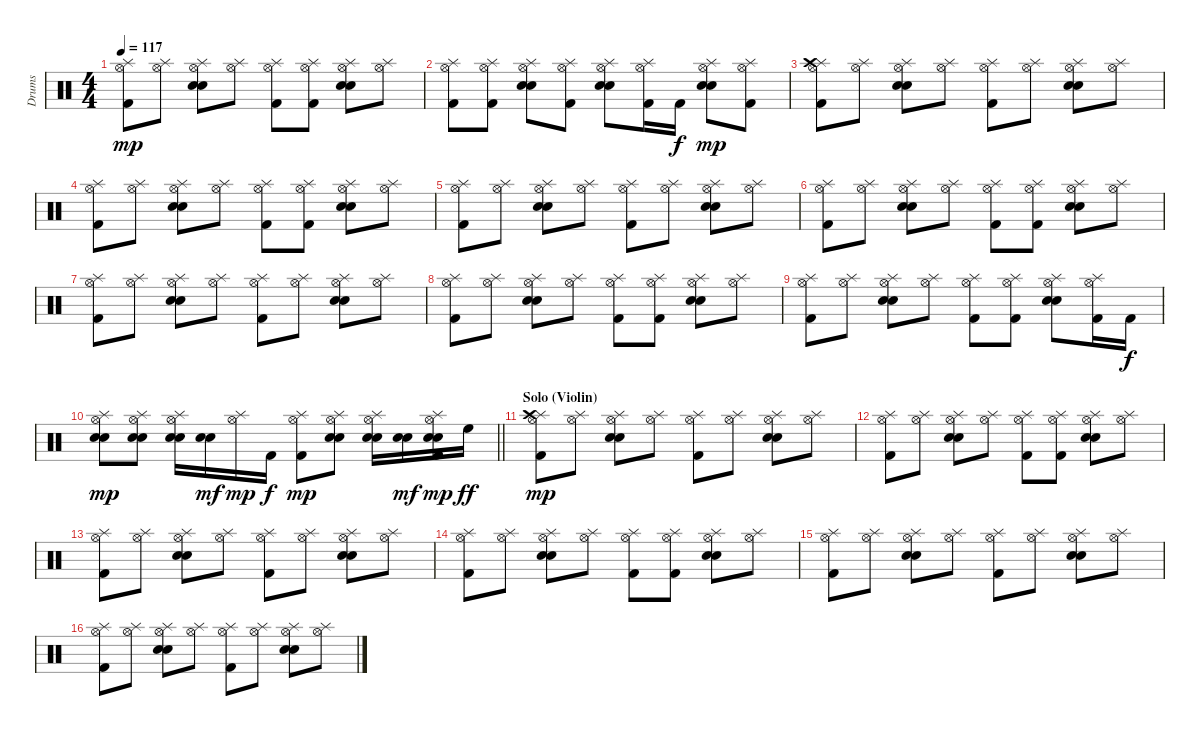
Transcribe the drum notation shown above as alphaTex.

\track ("Drums" "Drums") {instrument percussion}
\staff {score}
\articulation defaults
\ts (4 4)
\tempo 117
\clef neutral
\ks c
("Splash (hit)" "Hi-Hat (open)" "Kick (hit) 2").8{dy mp} ("Splash (hit)" "Hi-Hat (open)").8 ("Splash (hit)" "Hi-Hat (open)" "Snare (hit) 2" "Snare (hit) 2").8 ("Splash (hit)" "Hi-Hat (open)").8 ("Splash (hit)" "Hi-Hat (open)" "Kick (hit) 2").8 ("Splash (hit)" "Hi-Hat (open)" "Kick (hit) 2").8 ("Splash (hit)" "Hi-Hat (open)" "Snare (hit) 2" "Snare (hit) 2").8 ("Splash (hit)" "Hi-Hat (open)").8 |
("Splash (hit)" "Hi-Hat (open)" "Kick (hit) 2").8 ("Splash (hit)" "Hi-Hat (open)" "Kick (hit) 2").8 ("Splash (hit)" "Hi-Hat (open)" "Snare (hit) 2" "Snare (hit) 2").8 ("Splash (hit)" "Hi-Hat (open)" "Kick (hit) 2").8 ("Splash (hit)" "Hi-Hat (open)" "Snare (hit) 2" "Snare (hit) 2").8 ("Splash (hit)" "Hi-Hat (open)" "Kick (hit) 2").16 "Kick (hit) 2".16{dy f} ("Splash (hit)" "Hi-Hat (open)" "Snare (hit) 2" "Snare (hit) 2").8{dy mp} ("Splash (hit)" "Hi-Hat (open)" "Kick (hit) 2").8 |
("Splash (hit)" "Crash high (hit)" "Hi-Hat (open)" "Kick (hit) 2").8 ("Splash (hit)" "Hi-Hat (open)").8 ("Splash (hit)" "Hi-Hat (open)" "Snare (hit) 2" "Snare (hit) 2").8 ("Splash (hit)" "Hi-Hat (open)").8 ("Splash (hit)" "Hi-Hat (open)" "Kick (hit) 2").8 ("Splash (hit)" "Hi-Hat (open)").8 ("Splash (hit)" "Hi-Hat (open)" "Snare (hit) 2" "Snare (hit) 2").8 ("Splash (hit)" "Hi-Hat (open)").8 |
("Splash (hit)" "Hi-Hat (open)" "Kick (hit) 2").8 ("Splash (hit)" "Hi-Hat (open)").8 ("Splash (hit)" "Hi-Hat (open)" "Snare (hit) 2" "Snare (hit) 2").8 ("Splash (hit)" "Hi-Hat (open)").8 ("Splash (hit)" "Hi-Hat (open)" "Kick (hit) 2").8 ("Splash (hit)" "Hi-Hat (open)" "Kick (hit) 2").8 ("Splash (hit)" "Hi-Hat (open)" "Snare (hit) 2" "Snare (hit) 2").8 ("Splash (hit)" "Hi-Hat (open)").8 |
("Splash (hit)" "Hi-Hat (open)" "Kick (hit) 2").8 ("Splash (hit)" "Hi-Hat (open)").8 ("Splash (hit)" "Hi-Hat (open)" "Snare (hit) 2" "Snare (hit) 2").8 ("Splash (hit)" "Hi-Hat (open)").8 ("Splash (hit)" "Hi-Hat (open)" "Kick (hit) 2").8 ("Splash (hit)" "Hi-Hat (open)").8 ("Splash (hit)" "Hi-Hat (open)" "Snare (hit) 2" "Snare (hit) 2").8 ("Splash (hit)" "Hi-Hat (open)").8 |
("Splash (hit)" "Hi-Hat (open)" "Kick (hit) 2").8 ("Splash (hit)" "Hi-Hat (open)").8 ("Splash (hit)" "Hi-Hat (open)" "Snare (hit) 2" "Snare (hit) 2").8 ("Splash (hit)" "Hi-Hat (open)").8 ("Splash (hit)" "Hi-Hat (open)" "Kick (hit) 2").8 ("Splash (hit)" "Hi-Hat (open)" "Kick (hit) 2").8 ("Splash (hit)" "Hi-Hat (open)" "Snare (hit) 2" "Snare (hit) 2").8 ("Splash (hit)" "Hi-Hat (open)").8 |
("Splash (hit)" "Hi-Hat (open)" "Kick (hit) 2").8 ("Splash (hit)" "Hi-Hat (open)").8 ("Splash (hit)" "Hi-Hat (open)" "Snare (hit) 2" "Snare (hit) 2").8 ("Splash (hit)" "Hi-Hat (open)").8 ("Splash (hit)" "Hi-Hat (open)" "Kick (hit) 2").8 ("Splash (hit)" "Hi-Hat (open)").8 ("Splash (hit)" "Hi-Hat (open)" "Snare (hit) 2" "Snare (hit) 2").8 ("Splash (hit)" "Hi-Hat (open)").8 |
("Splash (hit)" "Hi-Hat (open)" "Kick (hit) 2").8 ("Splash (hit)" "Hi-Hat (open)").8 ("Splash (hit)" "Hi-Hat (open)" "Snare (hit) 2" "Snare (hit) 2").8 ("Splash (hit)" "Hi-Hat (open)").8 ("Splash (hit)" "Hi-Hat (open)" "Kick (hit) 2").8 ("Splash (hit)" "Hi-Hat (open)" "Kick (hit) 2").8 ("Splash (hit)" "Hi-Hat (open)" "Snare (hit) 2" "Snare (hit) 2").8 ("Splash (hit)" "Hi-Hat (open)").8 |
("Splash (hit)" "Hi-Hat (open)" "Kick (hit) 2").8 ("Splash (hit)" "Hi-Hat (open)").8 ("Splash (hit)" "Hi-Hat (open)" "Snare (hit) 2" "Snare (hit) 2").8 ("Splash (hit)" "Hi-Hat (open)").8 ("Splash (hit)" "Hi-Hat (open)" "Kick (hit) 2").8 ("Splash (hit)" "Hi-Hat (open)" "Kick (hit) 2").8 ("Splash (hit)" "Hi-Hat (open)" "Snare (hit) 2" "Snare (hit) 2").8 ("Splash (hit)" "Hi-Hat (open)" "Kick (hit) 2").16 "Kick (hit) 2".16{dy f} |
\barLineRight lightlight
("Splash (hit)" "Hi-Hat (open)" "Snare (hit) 2" "Snare (hit) 2").8{dy mp} ("Splash (hit)" "Hi-Hat (open)" "Snare (hit) 2" "Snare (hit) 2").8 ("Splash (hit)" "Hi-Hat (open)" "Snare (hit) 2" "Snare (hit) 2").16 ("Snare (hit) 2" "Snare (hit) 2").16{dy mf} ("Splash (hit)" "Hi-Hat (open)").16{dy mp} "Kick (hit) 2".16{dy f} ("Splash (hit)" "Hi-Hat (open)" "Kick (hit) 2").8{dy mp} ("Splash (hit)" "Hi-Hat (open)" "Snare (hit) 2" "Snare (hit) 2").8 ("Splash (hit)" "Hi-Hat (open)" "Snare (hit) 2" "Snare (hit) 2").16 ("Snare (hit) 2" "Snare (hit) 2").16{dy mf} ("Splash (hit)" "Hi-Hat (open)" "Snare (hit) 2" "Snare (hit) 2" "Kick (hit) 2").16{dy mp} "High Floor Tom (hit)".16{dy ff} |
\section ("" "Solo (Violin)")
("Splash (hit)" "Crash high (hit)" "Hi-Hat (open)" "Kick (hit) 2").8{dy mp} ("Splash (hit)" "Hi-Hat (open)").8 ("Splash (hit)" "Hi-Hat (open)" "Snare (hit) 2" "Snare (hit) 2").8 ("Splash (hit)" "Hi-Hat (open)").8 ("Splash (hit)" "Hi-Hat (open)" "Kick (hit) 2").8 ("Splash (hit)" "Hi-Hat (open)").8 ("Splash (hit)" "Hi-Hat (open)" "Snare (hit) 2" "Snare (hit) 2").8 ("Splash (hit)" "Hi-Hat (open)").8 |
("Splash (hit)" "Hi-Hat (open)" "Kick (hit) 2").8 ("Splash (hit)" "Hi-Hat (open)").8 ("Splash (hit)" "Hi-Hat (open)" "Snare (hit) 2" "Snare (hit) 2").8 ("Splash (hit)" "Hi-Hat (open)").8 ("Splash (hit)" "Hi-Hat (open)" "Kick (hit) 2").8 ("Splash (hit)" "Hi-Hat (open)" "Kick (hit) 2").8 ("Splash (hit)" "Hi-Hat (open)" "Snare (hit) 2" "Snare (hit) 2").8 ("Splash (hit)" "Hi-Hat (open)").8 |
("Splash (hit)" "Hi-Hat (open)" "Kick (hit) 2").8 ("Splash (hit)" "Hi-Hat (open)").8 ("Splash (hit)" "Hi-Hat (open)" "Snare (hit) 2" "Snare (hit) 2").8 ("Splash (hit)" "Hi-Hat (open)").8 ("Splash (hit)" "Hi-Hat (open)" "Kick (hit) 2").8 ("Splash (hit)" "Hi-Hat (open)").8 ("Splash (hit)" "Hi-Hat (open)" "Snare (hit) 2" "Snare (hit) 2").8 ("Splash (hit)" "Hi-Hat (open)").8 |
("Splash (hit)" "Hi-Hat (open)" "Kick (hit) 2").8 ("Splash (hit)" "Hi-Hat (open)").8 ("Splash (hit)" "Hi-Hat (open)" "Snare (hit) 2" "Snare (hit) 2").8 ("Splash (hit)" "Hi-Hat (open)").8 ("Splash (hit)" "Hi-Hat (open)" "Kick (hit) 2").8 ("Splash (hit)" "Hi-Hat (open)" "Kick (hit) 2").8 ("Splash (hit)" "Hi-Hat (open)" "Snare (hit) 2" "Snare (hit) 2").8 ("Splash (hit)" "Hi-Hat (open)").8 |
("Splash (hit)" "Hi-Hat (open)" "Kick (hit) 2").8 ("Splash (hit)" "Hi-Hat (open)").8 ("Splash (hit)" "Hi-Hat (open)" "Snare (hit) 2" "Snare (hit) 2").8 ("Splash (hit)" "Hi-Hat (open)").8 ("Splash (hit)" "Hi-Hat (open)" "Kick (hit) 2").8 ("Splash (hit)" "Hi-Hat (open)").8 ("Splash (hit)" "Hi-Hat (open)" "Snare (hit) 2" "Snare (hit) 2").8 ("Splash (hit)" "Hi-Hat (open)").8 |
("Splash (hit)" "Hi-Hat (open)" "Kick (hit) 2").8 ("Splash (hit)" "Hi-Hat (open)").8 ("Splash (hit)" "Hi-Hat (open)" "Snare (hit) 2" "Snare (hit) 2").8 ("Splash (hit)" "Hi-Hat (open)").8 ("Splash (hit)" "Hi-Hat (open)" "Kick (hit) 2").8 ("Splash (hit)" "Hi-Hat (open)").8 ("Splash (hit)" "Hi-Hat (open)" "Snare (hit) 2" "Snare (hit) 2").8 ("Splash (hit)" "Hi-Hat (open)").8
